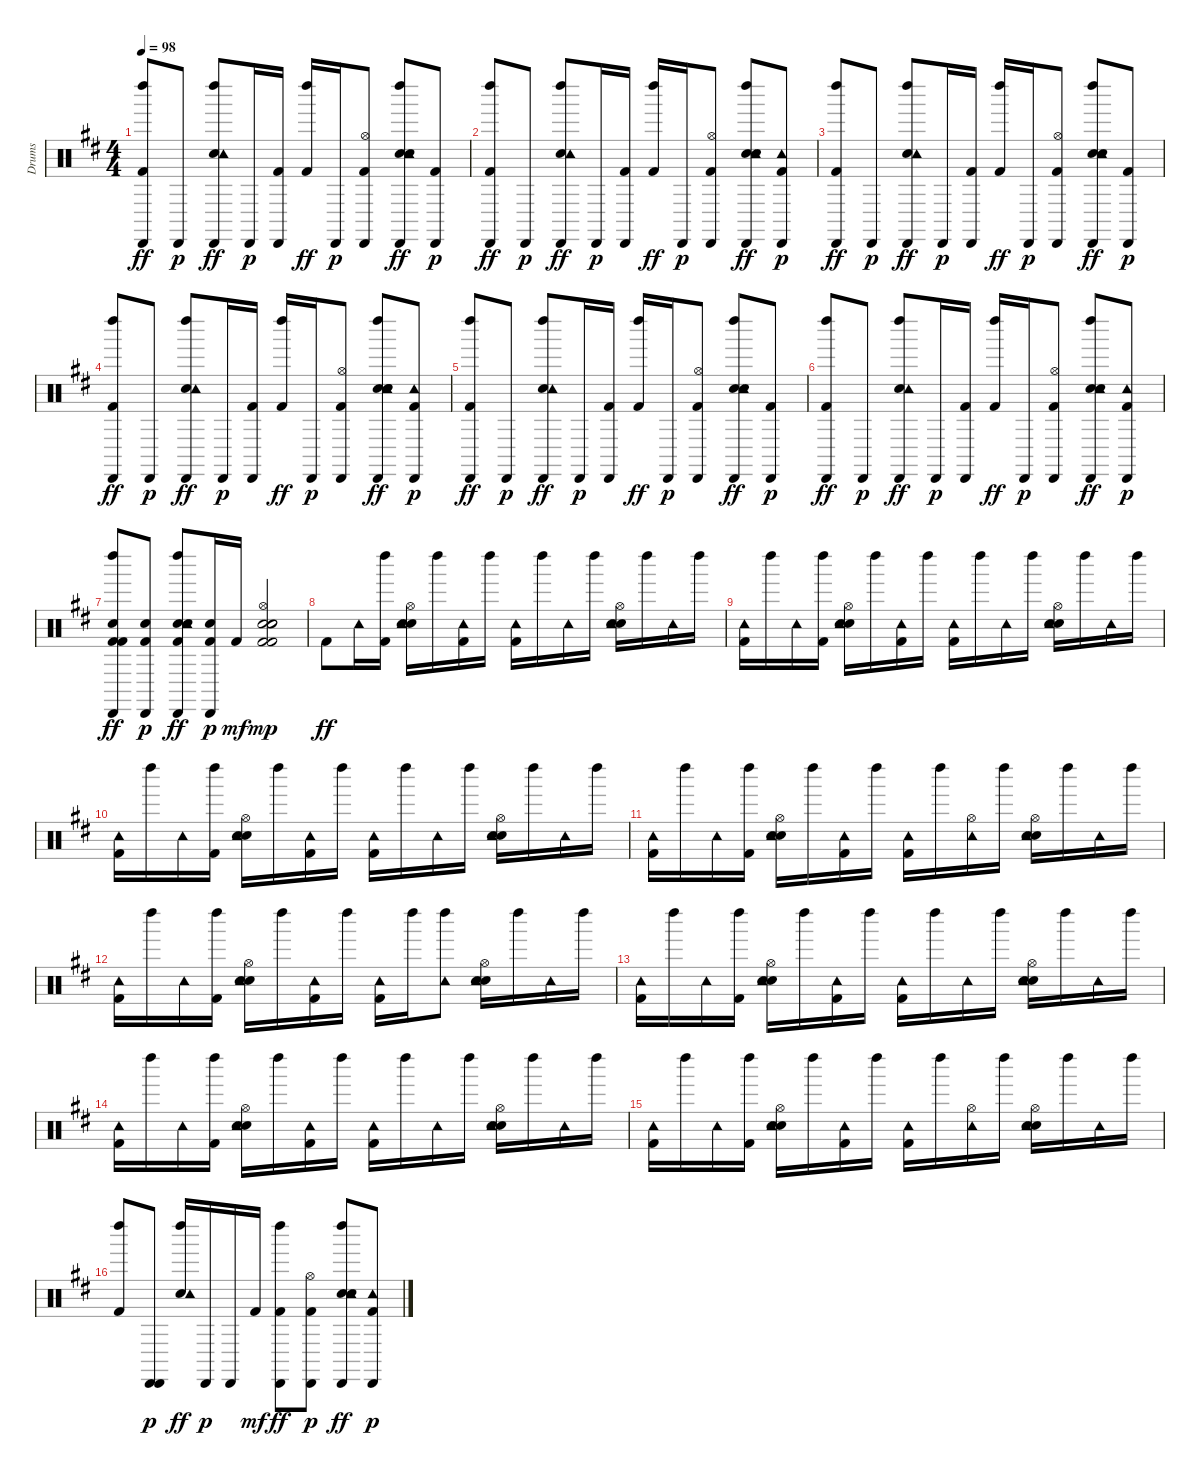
\track ("Drums" "Drums") {instrument percussion}
\staff {score}
\articulation defaults
\ts (4 4)
\tempo 98
\clef neutral
\ks d
("Kick (hit) 2" "Cabasa (hit)" "Left Maraca (hit)").8{dy ff} "Cabasa (hit)".8{dy p} ("Electric Snare (hit)" "Tambourine (hit)" "Cabasa (hit)" "Left Maraca (hit)").8{dy ff} "Cabasa (hit)".16{dy p} ("Kick (hit) 2" "Cabasa (hit)").16 ("Kick (hit) 2" "Left Maraca (hit)").16{dy ff} "Cabasa (hit)".16{dy p} ("Kick (hit) 2" "Hi-Hat (open)" "Cabasa (hit)").8 ("Hand Clap (hit)" "Electric Snare (hit)" "Tambourine (hit)" "Cabasa (hit)" "Left Maraca (hit)").8{dy ff} ("Kick (hit) 2" "Cabasa (hit)").8{dy p} |
("Kick (hit) 2" "Cabasa (hit)" "Left Maraca (hit)").8{dy ff} "Cabasa (hit)".8{dy p} ("Electric Snare (hit)" "Tambourine (hit)" "Cabasa (hit)" "Left Maraca (hit)").8{dy ff} "Cabasa (hit)".16{dy p} ("Kick (hit) 2" "Cabasa (hit)").16 ("Kick (hit) 2" "Left Maraca (hit)").16{dy ff} "Cabasa (hit)".16{dy p} ("Kick (hit) 2" "Hi-Hat (open)" "Cabasa (hit)").8 ("Hand Clap (hit)" "Electric Snare (hit)" "Tambourine (hit)" "Cabasa (hit)" "Left Maraca (hit)").8{dy ff} ("Kick (hit) 2" "Tambourine (hit)" "Cabasa (hit)").8{dy p} |
("Kick (hit) 2" "Cabasa (hit)" "Left Maraca (hit)").8{dy ff} "Cabasa (hit)".8{dy p} ("Electric Snare (hit)" "Tambourine (hit)" "Cabasa (hit)" "Left Maraca (hit)").8{dy ff} "Cabasa (hit)".16{dy p} ("Kick (hit) 2" "Cabasa (hit)").16 ("Kick (hit) 2" "Left Maraca (hit)").16{dy ff} "Cabasa (hit)".16{dy p} ("Kick (hit) 2" "Hi-Hat (open)" "Cabasa (hit)").8 ("Hand Clap (hit)" "Electric Snare (hit)" "Tambourine (hit)" "Cabasa (hit)" "Left Maraca (hit)").8{dy ff} ("Kick (hit) 2" "Cabasa (hit)").8{dy p} |
("Kick (hit) 2" "Cabasa (hit)" "Left Maraca (hit)").8{dy ff} "Cabasa (hit)".8{dy p} ("Electric Snare (hit)" "Tambourine (hit)" "Cabasa (hit)" "Left Maraca (hit)").8{dy ff} "Cabasa (hit)".16{dy p} ("Kick (hit) 2" "Cabasa (hit)").16 ("Kick (hit) 2" "Left Maraca (hit)").16{dy ff} "Cabasa (hit)".16{dy p} ("Kick (hit) 2" "Hi-Hat (open)" "Cabasa (hit)").8 ("Snare (hit) 2" "Hand Clap (hit)" "Electric Snare (hit)" "Tambourine (hit)" "Cabasa (hit)" "Left Maraca (hit)").8{dy ff} ("Kick (hit) 2" "Tambourine (hit)" "Cabasa (hit)").8{dy p} |
("Kick (hit) 2" "Cabasa (hit)" "Left Maraca (hit)").8{dy ff} "Cabasa (hit)".8{dy p} ("Electric Snare (hit)" "Tambourine (hit)" "Cabasa (hit)" "Left Maraca (hit)").8{dy ff} "Cabasa (hit)".16{dy p} ("Kick (hit) 2" "Cabasa (hit)").16 ("Kick (hit) 2" "Left Maraca (hit)").16{dy ff} "Cabasa (hit)".16{dy p} ("Kick (hit) 2" "Hi-Hat (open)" "Cabasa (hit)").8 ("Hand Clap (hit)" "Electric Snare (hit)" "Tambourine (hit)" "Cabasa (hit)" "Left Maraca (hit)").8{dy ff} ("Kick (hit) 2" "Cabasa (hit)").8{dy p} |
("Kick (hit) 2" "Cabasa (hit)" "Left Maraca (hit)").8{dy ff} "Cabasa (hit)".8{dy p} ("Electric Snare (hit)" "Tambourine (hit)" "Cabasa (hit)" "Left Maraca (hit)").8{dy ff} "Cabasa (hit)".16{dy p} ("Kick (hit) 2" "Cabasa (hit)").16 ("Kick (hit) 2" "Left Maraca (hit)").16{dy ff} "Cabasa (hit)".16{dy p} ("Kick (hit) 2" "Hi-Hat (open)" "Cabasa (hit)").8 ("Hand Clap (hit)" "Electric Snare (hit)" "Tambourine (hit)" "Cabasa (hit)" "Left Maraca (hit)").8{dy ff} ("Kick (hit) 2" "Tambourine (hit)" "Cabasa (hit)").8{dy p} |
("Kick (hit) 2" "Kick (hit) 2" "Snare (hit) 2" "Cabasa (hit)" "Left Maraca (hit)").8{dy ff} ("Kick (hit) 2" "Snare (hit) 2" "Cabasa (hit)").8{dy p} ("Kick (hit) 2" "Snare (hit) 2" "Electric Snare (hit)" "Tambourine (hit)" "Cabasa (hit)" "Left Maraca (hit)").8{dy ff} ("Kick (hit) 2" "Snare (hit) 2" "Cabasa (hit)").16{dy p} "Kick (hit) 2".16{dy mf} ("Kick (hit) 2" "Kick (hit) 2" "Snare (hit) 2" "Hand Clap (hit)" "Electric Snare (hit)" "Hi-Hat (open)").2{dy mp} |
"Kick (hit) 2".8{dy ff} "Tambourine (hit)".16 ("Kick (hit) 2" "Left Maraca (hit)").16 ("Snare (hit) 2" "Electric Snare (hit)" "Hi-Hat (open)" "Tambourine (hit)").16 "Left Maraca (hit)".16 ("Kick (hit) 2" "Tambourine (hit)").16 "Left Maraca (hit)".16 ("Kick (hit) 2" "Tambourine (hit)").16 "Left Maraca (hit)".16 "Tambourine (hit)".16 "Left Maraca (hit)".16 ("Snare (hit) 2" "Electric Snare (hit)" "Hi-Hat (open)" "Tambourine (hit)").16 "Left Maraca (hit)".16 "Tambourine (hit)".16 "Left Maraca (hit)".16 |
("Kick (hit) 2" "Tambourine (hit)").16 "Left Maraca (hit)".16 "Tambourine (hit)".16 ("Kick (hit) 2" "Left Maraca (hit)").16 ("Snare (hit) 2" "Electric Snare (hit)" "Hi-Hat (open)" "Tambourine (hit)").16 "Left Maraca (hit)".16 ("Kick (hit) 2" "Tambourine (hit)").16 "Left Maraca (hit)".16 ("Kick (hit) 2" "Tambourine (hit)").16 "Left Maraca (hit)".16 "Tambourine (hit)".16 "Left Maraca (hit)".16 ("Snare (hit) 2" "Electric Snare (hit)" "Hi-Hat (open)" "Tambourine (hit)").16 "Left Maraca (hit)".16 "Tambourine (hit)".16 "Left Maraca (hit)".16 |
("Kick (hit) 2" "Tambourine (hit)").16 "Left Maraca (hit)".16 "Tambourine (hit)".16 ("Kick (hit) 2" "Left Maraca (hit)").16 ("Snare (hit) 2" "Electric Snare (hit)" "Hi-Hat (open)" "Tambourine (hit)").16 "Left Maraca (hit)".16 ("Kick (hit) 2" "Tambourine (hit)").16 "Left Maraca (hit)".16 ("Kick (hit) 2" "Tambourine (hit)").16 "Left Maraca (hit)".16 "Tambourine (hit)".16 "Left Maraca (hit)".16 ("Snare (hit) 2" "Electric Snare (hit)" "Hi-Hat (open)" "Tambourine (hit)").16 "Left Maraca (hit)".16 "Tambourine (hit)".16 "Left Maraca (hit)".16 |
("Kick (hit) 2" "Tambourine (hit)").16 "Left Maraca (hit)".16 "Tambourine (hit)".16 ("Kick (hit) 2" "Left Maraca (hit)").16 ("Snare (hit) 2" "Electric Snare (hit)" "Hi-Hat (open)" "Tambourine (hit)").16 "Left Maraca (hit)".16 ("Kick (hit) 2" "Tambourine (hit)").16 "Left Maraca (hit)".16 ("Kick (hit) 2" "Tambourine (hit)").16 "Left Maraca (hit)".16 ("Hi-Hat (open)" "Tambourine (hit)").16 "Left Maraca (hit)".16 ("Snare (hit) 2" "Electric Snare (hit)" "Hi-Hat (open)" "Tambourine (hit)").16 "Left Maraca (hit)".16 "Tambourine (hit)".16 "Left Maraca (hit)".16 |
("Kick (hit) 2" "Tambourine (hit)").16 "Left Maraca (hit)".16 "Tambourine (hit)".16 ("Kick (hit) 2" "Left Maraca (hit)").16 ("Snare (hit) 2" "Electric Snare (hit)" "Hi-Hat (open)" "Tambourine (hit)").16 "Left Maraca (hit)".16 ("Kick (hit) 2" "Tambourine (hit)").16 "Left Maraca (hit)".16 ("Kick (hit) 2" "Tambourine (hit)").16 "Left Maraca (hit)".16 ("Tambourine (hit)" "Left Maraca (hit)").8 ("Snare (hit) 2" "Electric Snare (hit)" "Hi-Hat (open)" "Tambourine (hit)").16 "Left Maraca (hit)".16 "Tambourine (hit)".16 "Left Maraca (hit)".16 |
("Kick (hit) 2" "Tambourine (hit)").16 "Left Maraca (hit)".16 "Tambourine (hit)".16 ("Kick (hit) 2" "Left Maraca (hit)").16 ("Snare (hit) 2" "Electric Snare (hit)" "Hi-Hat (open)" "Tambourine (hit)").16 "Left Maraca (hit)".16 ("Kick (hit) 2" "Tambourine (hit)").16 "Left Maraca (hit)".16 ("Kick (hit) 2" "Tambourine (hit)").16 "Left Maraca (hit)".16 "Tambourine (hit)".16 "Left Maraca (hit)".16 ("Snare (hit) 2" "Electric Snare (hit)" "Hi-Hat (open)" "Tambourine (hit)").16 "Left Maraca (hit)".16 "Tambourine (hit)".16 "Left Maraca (hit)".16 |
("Kick (hit) 2" "Tambourine (hit)").16 "Left Maraca (hit)".16 "Tambourine (hit)".16 ("Kick (hit) 2" "Left Maraca (hit)").16 ("Snare (hit) 2" "Electric Snare (hit)" "Hi-Hat (open)" "Tambourine (hit)").16 "Left Maraca (hit)".16 ("Kick (hit) 2" "Tambourine (hit)").16 "Left Maraca (hit)".16 ("Kick (hit) 2" "Tambourine (hit)").16 "Left Maraca (hit)".16 "Tambourine (hit)".16 "Left Maraca (hit)".16 ("Snare (hit) 2" "Electric Snare (hit)" "Hi-Hat (open)" "Tambourine (hit)").16 "Left Maraca (hit)".16 "Tambourine (hit)".16 "Left Maraca (hit)".16 |
("Kick (hit) 2" "Tambourine (hit)").16 "Left Maraca (hit)".16 "Tambourine (hit)".16 ("Kick (hit) 2" "Left Maraca (hit)").16 ("Snare (hit) 2" "Electric Snare (hit)" "Hi-Hat (open)" "Tambourine (hit)").16 "Left Maraca (hit)".16 ("Kick (hit) 2" "Tambourine (hit)").16 "Left Maraca (hit)".16 ("Kick (hit) 2" "Tambourine (hit)").16 "Left Maraca (hit)".16 ("Hi-Hat (open)" "Tambourine (hit)").16 "Left Maraca (hit)".16 ("Snare (hit) 2" "Electric Snare (hit)" "Hi-Hat (open)" "Tambourine (hit)").16 "Left Maraca (hit)".16 "Tambourine (hit)".16 "Left Maraca (hit)".16 |
("Kick (hit) 2" "Left Maraca (hit)").8 ("Cabasa (hit)" "Cabasa (hit)").8{dy p} ("Electric Snare (hit)" "Tambourine (hit)" "Left Maraca (hit)").16{dy ff} "Cabasa (hit)".16{dy p} "Cabasa (hit)".16 "Kick (hit) 2".16{dy mf} ("Kick (hit) 2" "Cabasa (hit)" "Left Maraca (hit)").8{dy ff} ("Kick (hit) 2" "Hi-Hat (open)" "Cabasa (hit)").8{dy p} ("Hand Clap (hit)" "Electric Snare (hit)" "Tambourine (hit)" "Cabasa (hit)" "Left Maraca (hit)").8{dy ff} ("Kick (hit) 2" "Tambourine (hit)" "Cabasa (hit)").8{dy p}
